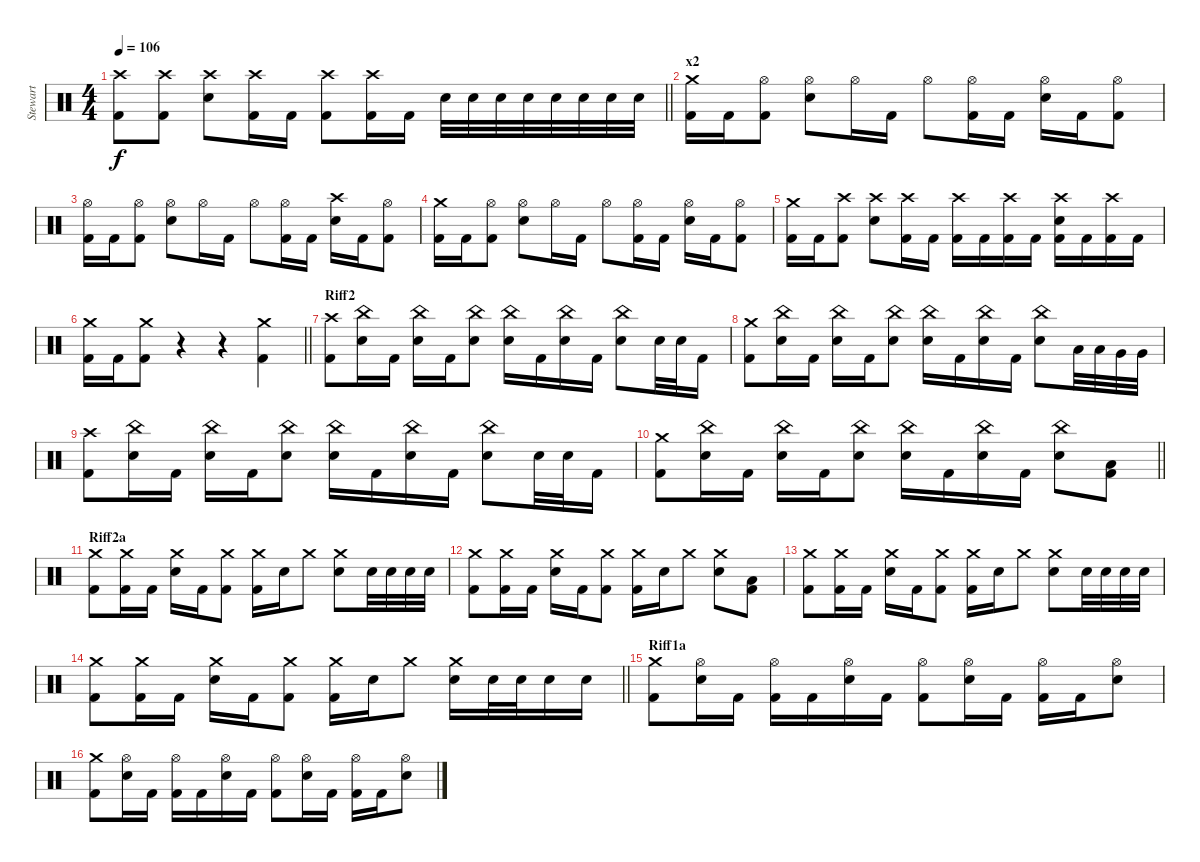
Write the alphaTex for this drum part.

\track ("Stewart" "Stewart") {instrument percussion}
\staff {score}
\articulation defaults
\ts (4 4)
\tempo 106
\clef neutral
\barLineRight lightlight
\ks c
("Crash high (hit)" "Kick (hit) 2").8{dy f} ("Crash high (hit)" "Kick (hit) 2").8 ("Crash high (hit)" "Electric Snare (hit)").8 ("Crash high (hit)" "Kick (hit) 2").16 "Kick (hit) 2".16 ("Crash high (hit)" "Kick (hit) 2").8 ("Crash high (hit)" "Kick (hit) 2").16 "Kick (hit) 2".16 "Electric Snare (hit)".32 "Electric Snare (hit)".32 "Electric Snare (hit)".32 "Electric Snare (hit)".32 "Electric Snare (hit)".32 "Electric Snare (hit)".32 "Electric Snare (hit)".32 "Electric Snare (hit)".32 |
\section ("" "x2")
("Crash medium (hit)" "Kick (hit) 2").16 "Kick (hit) 2".16 ("Hi-Hat (open)" "Kick (hit) 2").8 ("Hi-Hat (open)" "Electric Snare (hit)").8 "Hi-Hat (open)".16 "Kick (hit) 2".16 "Hi-Hat (open)".8 ("Hi-Hat (open)" "Kick (hit) 2").16 "Kick (hit) 2".16 ("Hi-Hat (open)" "Electric Snare (hit)").16 "Kick (hit) 2".16 ("Hi-Hat (open)" "Kick (hit) 2").8 |
("Hi-Hat (open)" "Kick (hit) 2").16 "Kick (hit) 2".16 ("Hi-Hat (open)" "Kick (hit) 2").8 ("Hi-Hat (open)" "Electric Snare (hit)").8 "Hi-Hat (open)".16 "Kick (hit) 2".16 "Hi-Hat (open)".8 ("Hi-Hat (open)" "Kick (hit) 2").16 "Kick (hit) 2".16 ("Crash high (hit)" "Electric Snare (hit)").16 "Kick (hit) 2".16 ("Hi-Hat (open)" "Kick (hit) 2").8 |
("Crash medium (hit)" "Kick (hit) 2").16 "Kick (hit) 2".16 ("Hi-Hat (open)" "Kick (hit) 2").8 ("Hi-Hat (open)" "Electric Snare (hit)").8 "Hi-Hat (open)".16 "Kick (hit) 2".16 "Hi-Hat (open)".8 ("Hi-Hat (open)" "Kick (hit) 2").16 "Kick (hit) 2".16 ("Hi-Hat (open)" "Electric Snare (hit)").16 "Kick (hit) 2".16 ("Hi-Hat (open)" "Kick (hit) 2").8 |
("Crash medium (hit)" "Kick (hit) 2").16 "Kick (hit) 2".16 ("Crash high (hit)" "Kick (hit) 2").8 ("Crash high (hit)" "Electric Snare (hit)").8 ("Crash high (hit)" "Kick (hit) 2").16 "Kick (hit) 2".16 ("Crash high (hit)" "Kick (hit) 2").16 "Kick (hit) 2".16 ("Crash high (hit)" "Kick (hit) 2").16 "Kick (hit) 2".16 ("Crash high (hit)" "Electric Snare (hit)" "Kick (hit) 2").16 "Kick (hit) 2".16 ("Crash high (hit)" "Kick (hit) 2").16 "Kick (hit) 2".16 |
\barLineRight lightlight
("Crash medium (hit)" "Kick (hit) 2").16 "Kick (hit) 2".16 ("Crash medium (hit)" "Kick (hit) 2").8 r.4 r.4 ("Crash medium (hit)" "Kick (hit) 2").4 |
\section ("" "Riff2")
("Crash high (hit)" "Kick (hit) 2").8 ("China (hit)" "Electric Snare (hit)").16 "Kick (hit) 2".16 ("China (hit)" "Electric Snare (hit)").16 "Kick (hit) 2".16 ("China (hit)" "Electric Snare (hit)").8 ("China (hit)" "Electric Snare (hit)").16 "Kick (hit) 2".16 ("China (hit)" "Electric Snare (hit)").16 "Kick (hit) 2".16 ("China (hit)" "Electric Snare (hit)").8 "Electric Snare (hit)".32 "Electric Snare (hit)".32 "Kick (hit) 2".16 |
("Crash medium (hit)" "Kick (hit) 2").8 ("China (hit)" "Electric Snare (hit)").16 "Kick (hit) 2".16 ("China (hit)" "Electric Snare (hit)").16 "Kick (hit) 2".16 ("China (hit)" "Electric Snare (hit)").8 ("China (hit)" "Electric Snare (hit)").16 "Kick (hit) 2".16 ("China (hit)" "Electric Snare (hit)").16 "Kick (hit) 2".16 ("China (hit)" "Electric Snare (hit)").8 "Low Tom (hit)".32 "Low Tom (hit)".32 "Very Low Tom (hit)".32 "Very Low Tom (hit)".32 |
("Crash high (hit)" "Kick (hit) 2").8 ("China (hit)" "Electric Snare (hit)").16 "Kick (hit) 2".16 ("China (hit)" "Electric Snare (hit)").16 "Kick (hit) 2".16 ("China (hit)" "Electric Snare (hit)").8 ("China (hit)" "Electric Snare (hit)").16 "Kick (hit) 2".16 ("China (hit)" "Electric Snare (hit)").16 "Kick (hit) 2".16 ("China (hit)" "Electric Snare (hit)").8 "Electric Snare (hit)".32 "Electric Snare (hit)".32 "Kick (hit) 2".16 |
\barLineRight lightlight
("Crash medium (hit)" "Kick (hit) 2").8 ("China (hit)" "Electric Snare (hit)").16 "Kick (hit) 2".16 ("China (hit)" "Electric Snare (hit)").16 "Kick (hit) 2".16 ("China (hit)" "Electric Snare (hit)").8 ("China (hit)" "Electric Snare (hit)").16 "Kick (hit) 2".16 ("China (hit)" "Electric Snare (hit)").16 "Kick (hit) 2".16 ("China (hit)" "Electric Snare (hit)").8 ("Low Tom (hit)" "Kick (hit) 2").8 |
\section ("" "Riff2a")
("Crash medium (hit)" "Kick (hit) 2").8 ("Crash medium (hit)" "Kick (hit) 2").16 "Kick (hit) 2".16 ("Crash medium (hit)" "Electric Snare (hit)").16 "Kick (hit) 2".16 ("Crash medium (hit)" "Kick (hit) 2").8 ("Crash medium (hit)" "Kick (hit) 2").16 "Electric Snare (hit)".16 "Crash medium (hit)".8 ("Crash medium (hit)" "Electric Snare (hit)").8 "Electric Snare (hit)".32 "Electric Snare (hit)".32 "Electric Snare (hit)".32 "Electric Snare (hit)".32 |
("Crash medium (hit)" "Kick (hit) 2").8 ("Crash medium (hit)" "Kick (hit) 2").16 "Kick (hit) 2".16 ("Crash medium (hit)" "Electric Snare (hit)").16 "Kick (hit) 2".16 ("Crash medium (hit)" "Kick (hit) 2").8 ("Crash medium (hit)" "Kick (hit) 2").16 "Electric Snare (hit)".16 "Crash medium (hit)".8 ("Crash medium (hit)" "Electric Snare (hit)").8 ("Low Tom (hit)" "Kick (hit) 2").8 |
("Crash medium (hit)" "Kick (hit) 2").8 ("Crash medium (hit)" "Kick (hit) 2").16 "Kick (hit) 2".16 ("Crash medium (hit)" "Electric Snare (hit)").16 "Kick (hit) 2".16 ("Crash medium (hit)" "Kick (hit) 2").8 ("Crash medium (hit)" "Kick (hit) 2").16 "Electric Snare (hit)".16 "Crash medium (hit)".8 ("Crash medium (hit)" "Electric Snare (hit)").8 "Electric Snare (hit)".32 "Electric Snare (hit)".32 "Electric Snare (hit)".32 "Electric Snare (hit)".32 |
\barLineRight lightlight
("Crash medium (hit)" "Kick (hit) 2").8 ("Crash medium (hit)" "Kick (hit) 2").16 "Kick (hit) 2".16 ("Crash medium (hit)" "Electric Snare (hit)").16 "Kick (hit) 2".16 ("Crash medium (hit)" "Kick (hit) 2").8 ("Crash medium (hit)" "Kick (hit) 2").16 "Electric Snare (hit)".16 "Crash medium (hit)".8 ("Crash medium (hit)" "Electric Snare (hit)").16 "Electric Snare (hit)".32 "Electric Snare (hit)".32 "Electric Snare (hit)".16 "Electric Snare (hit)".16 |
\section ("" "Riff1a")
("Crash medium (hit)" "Kick (hit) 2").8 ("Hi-Hat (open)" "Electric Snare (hit)").16 "Kick (hit) 2".16 ("Hi-Hat (open)" "Kick (hit) 2").16 "Kick (hit) 2".16 ("Hi-Hat (open)" "Electric Snare (hit)").16 "Kick (hit) 2".16 ("Hi-Hat (open)" "Kick (hit) 2").8 ("Hi-Hat (open)" "Electric Snare (hit)").16 "Kick (hit) 2".16 ("Hi-Hat (open)" "Kick (hit) 2").16 "Kick (hit) 2".16 ("Hi-Hat (open)" "Electric Snare (hit)").8 |
("Crash medium (hit)" "Kick (hit) 2").8 ("Hi-Hat (open)" "Electric Snare (hit)").16 "Kick (hit) 2".16 ("Hi-Hat (open)" "Kick (hit) 2").16 "Kick (hit) 2".16 ("Hi-Hat (open)" "Electric Snare (hit)").16 "Kick (hit) 2".16 ("Hi-Hat (open)" "Kick (hit) 2").8 ("Hi-Hat (open)" "Electric Snare (hit)").16 "Kick (hit) 2".16 ("Hi-Hat (open)" "Kick (hit) 2").16 "Kick (hit) 2".16 ("Hi-Hat (open)" "Electric Snare (hit)").8
